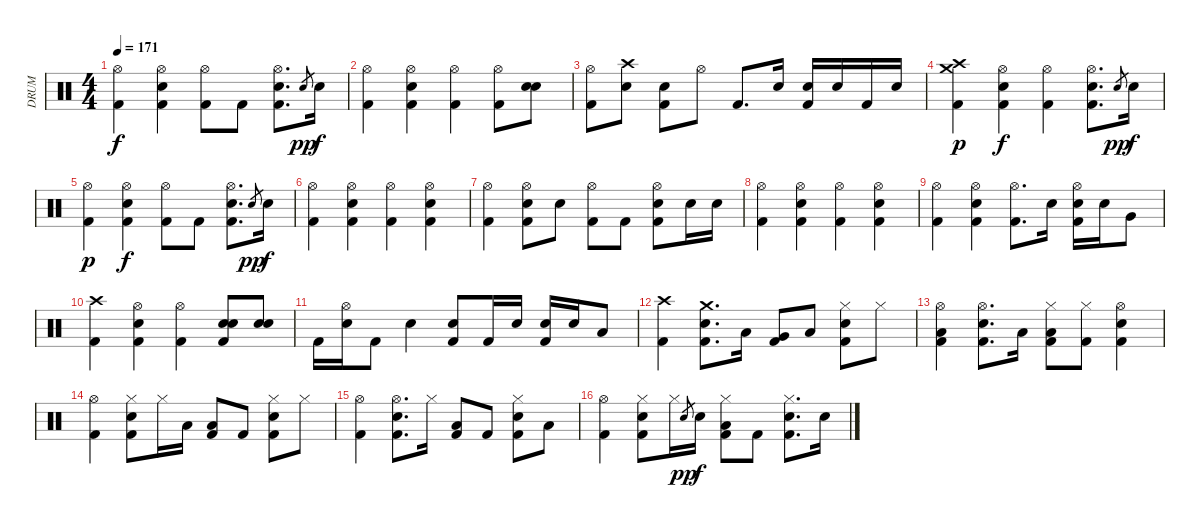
\track ("DRUM" "DRUM") {instrument percussion}
\staff {score}
\articulation defaults
\ts (4 4)
\tempo 171
\clef neutral
\ks c
("Hi-Hat (open)" "Kick (hit) 2").4{dy f} ("Hi-Hat (open)" "Electric Snare (hit)" "Kick (hit) 2").4 ("Hi-Hat (open)" "Kick (hit) 2").8 "Kick (hit) 2".8 ("Hi-Hat (open)" "Electric Snare (hit)" "Kick (hit) 2").8{d} "Electric Snare (hit)".8{gr dy pp} "Electric Snare (hit)".16{dy f} |
("Hi-Hat (open)" "Kick (hit) 2").4 ("Hi-Hat (open)" "Electric Snare (hit)" "Kick (hit) 2").4 ("Hi-Hat (open)" "Kick (hit) 2").4 ("Hi-Hat (open)" "Kick (hit) 2").8 ("Electric Snare (hit)" "Electric Snare (hit)").8 |
("Hi-Hat (open)" "Kick (hit) 2").8 ("Crash high (hit)" "Electric Snare (hit)").8 ("Electric Snare (hit)" "Kick (hit) 2").8 "Hi-Hat (open)".8 "Kick (hit) 2".8{d} "Electric Snare (hit)".16 ("Electric Snare (hit)" "Kick (hit) 2").16 "Electric Snare (hit)".16 "Kick (hit) 2".16 "Electric Snare (hit)".16 |
("Crash high (hit)" "Crash medium (hit)" "Kick (hit) 2").4{dy p} ("Hi-Hat (open)" "Electric Snare (hit)" "Kick (hit) 2").4{dy f} ("Hi-Hat (open)" "Kick (hit) 2").4 ("Hi-Hat (open)" "Electric Snare (hit)" "Kick (hit) 2").8{d} "Electric Snare (hit)".8{gr dy pp} "Electric Snare (hit)".16{dy f} |
("Hi-Hat (open)" "Kick (hit) 2").4{dy p} ("Hi-Hat (open)" "Electric Snare (hit)" "Kick (hit) 2").4{dy f} ("Hi-Hat (open)" "Kick (hit) 2").8 "Kick (hit) 2".8 ("Hi-Hat (open)" "Electric Snare (hit)" "Kick (hit) 2").8{d} "Electric Snare (hit)".8{gr dy pp} "Electric Snare (hit)".16{dy f} |
("Hi-Hat (open)" "Kick (hit) 2").4 ("Hi-Hat (open)" "Electric Snare (hit)" "Kick (hit) 2").4 ("Hi-Hat (open)" "Kick (hit) 2").4 ("Hi-Hat (open)" "Electric Snare (hit)" "Kick (hit) 2").4 |
("Hi-Hat (open)" "Kick (hit) 2").4 ("Hi-Hat (open)" "Electric Snare (hit)" "Kick (hit) 2").8 "Electric Snare (hit)".8 ("Hi-Hat (open)" "Kick (hit) 2").8 "Kick (hit) 2".8 ("Hi-Hat (open)" "Electric Snare (hit)" "Kick (hit) 2").8 "Electric Snare (hit)".16 "Electric Snare (hit)".16 |
("Hi-Hat (open)" "Kick (hit) 2").4 ("Hi-Hat (open)" "Electric Snare (hit)" "Kick (hit) 2").4 ("Hi-Hat (open)" "Kick (hit) 2").4 ("Hi-Hat (open)" "Electric Snare (hit)" "Kick (hit) 2").4 |
("Hi-Hat (open)" "Kick (hit) 2").4 ("Hi-Hat (open)" "Electric Snare (hit)" "Kick (hit) 2").4 ("Hi-Hat (open)" "Kick (hit) 2").8{d} "Electric Snare (hit)".16 ("Hi-Hat (open)" "Electric Snare (hit)" "Kick (hit) 2").16 "Electric Snare (hit)".16 "Very Low Tom (hit)".8 |
("Crash high (hit)" "Kick (hit) 2").4 ("Hi-Hat (open)" "Electric Snare (hit)" "Kick (hit) 2").4 ("Hi-Hat (open)" "Kick (hit) 2").4 ("Electric Snare (hit)" "Electric Snare (hit)" "Kick (hit) 2").8 ("Electric Snare (hit)" "Electric Snare (hit)").8 |
"Kick (hit) 2".16 ("Hi-Hat (open)" "Electric Snare (hit)").16 "Kick (hit) 2".8 "Electric Snare (hit)".4 ("Electric Snare (hit)" "Kick (hit) 2").8 "Kick (hit) 2".16 "Electric Snare (hit)".16 ("Electric Snare (hit)" "Kick (hit) 2").16 "Electric Snare (hit)".16 "Low Tom (hit)".8 |
("Crash high (hit)" "Kick (hit) 2").4 ("Crash medium (hit)" "Electric Snare (hit)" "Kick (hit) 2").8{d} "Low Floor Tom (hit)".16 ("Very Low Tom (hit)" "Kick (hit) 2").8 "Low Tom (hit)".8 ("Hi-Hat (closed)" "Electric Snare (hit)" "Kick (hit) 2").8 "Hi-Hat (closed)".8 |
("Hi-Hat (open)" "Low Floor Tom (hit)" "Kick (hit) 2").4 ("Hi-Hat (open)" "Electric Snare (hit)" "Kick (hit) 2").8{d} "Low Tom (hit)".16 ("Hi-Hat (closed)" "Low Floor Tom (hit)" "Kick (hit) 2").8 ("Hi-Hat (closed)" "Kick (hit) 2").8 ("Hi-Hat (open)" "Electric Snare (hit)" "Kick (hit) 2").4 |
("Hi-Hat (open)" "Kick (hit) 2").4 ("Hi-Hat (closed)" "Electric Snare (hit)" "Kick (hit) 2").8 "Hi-Hat (closed)".16 "Low Floor Tom (hit)".16 ("Low Tom (hit)" "Kick (hit) 2").8 "Kick (hit) 2".8 ("Hi-Hat (closed)" "Electric Snare (hit)" "Kick (hit) 2").8 "Hi-Hat (closed)".8 |
("Hi-Hat (open)" "Kick (hit) 2").4 ("Hi-Hat (open)" "Electric Snare (hit)" "Kick (hit) 2").8{d} "Hi-Hat (closed)".16 ("Low Tom (hit)" "Kick (hit) 2").8 "Kick (hit) 2".8 ("Hi-Hat (closed)" "Electric Snare (hit)" "Kick (hit) 2").8 "Low Tom (hit)".8 |
("Hi-Hat (open)" "Kick (hit) 2").4 ("Hi-Hat (closed)" "Electric Snare (hit)" "Kick (hit) 2").8 "Hi-Hat (closed)".16 "Electric Snare (hit)".8{gr dy pp} "Electric Snare (hit)".16{dy f} ("Hi-Hat (closed)" "Low Tom (hit)" "Kick (hit) 2").8 "Kick (hit) 2".8 ("Hi-Hat (closed)" "Electric Snare (hit)" "Kick (hit) 2").8{d} "Electric Snare (hit)".16
